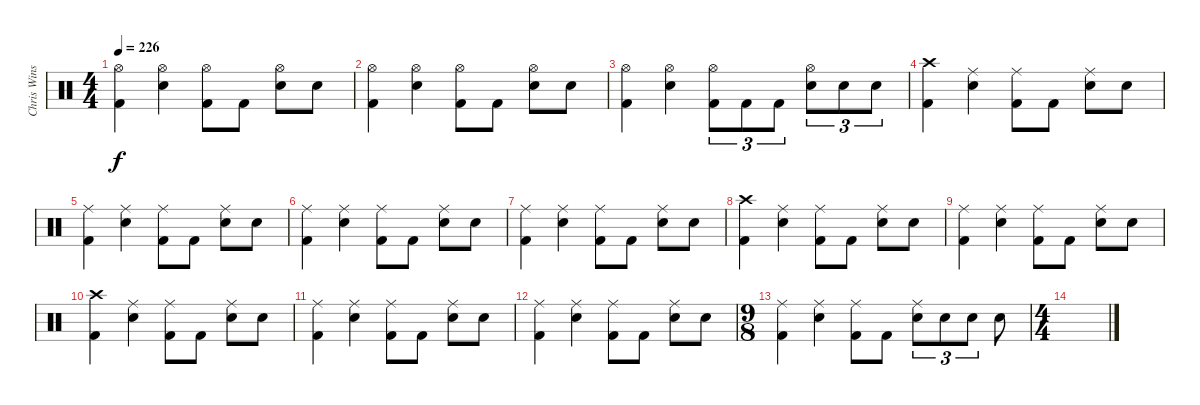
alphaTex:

\track ("Chris Winship (Drums)" "Chris Wins") {instrument percussion}
\staff {score}
\articulation defaults
\ts (4 4)
\tempo 226
\clef neutral
\ks c
("Hi-Hat (open)" "Kick (hit) 2").4{dy f} ("Hi-Hat (open)" "Electric Snare (hit)").4 ("Hi-Hat (open)" "Kick (hit) 2").8 "Kick (hit) 2".8 ("Hi-Hat (open)" "Electric Snare (hit)").8 "Electric Snare (hit)".8 |
("Hi-Hat (open)" "Kick (hit) 2").4 ("Hi-Hat (open)" "Electric Snare (hit)").4 ("Hi-Hat (open)" "Kick (hit) 2").8 "Kick (hit) 2".8 ("Hi-Hat (open)" "Electric Snare (hit)").8 "Electric Snare (hit)".8 |
("Hi-Hat (open)" "Kick (hit) 2").4 ("Hi-Hat (open)" "Electric Snare (hit)").4 ("Hi-Hat (open)" "Kick (hit) 2").8{tu (3 2)} "Kick (hit) 2".8{tu (3 2)} "Kick (hit) 2".8{tu (3 2)} ("Hi-Hat (open)" "Electric Snare (hit)").8{tu (3 2)} "Electric Snare (hit)".8{tu (3 2)} "Electric Snare (hit)".8{tu (3 2)} |
("Crash high (hit)" "Kick (hit) 2").4 ("Ride (middle)" "Electric Snare (hit)").4 ("Ride (middle)" "Kick (hit) 2").8 "Kick (hit) 2".8 ("Ride (middle)" "Electric Snare (hit)").8 "Electric Snare (hit)".8 |
("Ride (middle)" "Kick (hit) 2").4 ("Ride (middle)" "Electric Snare (hit)").4 ("Ride (middle)" "Kick (hit) 2").8 "Kick (hit) 2".8 ("Ride (middle)" "Electric Snare (hit)").8 "Electric Snare (hit)".8 |
("Ride (middle)" "Kick (hit) 2").4 ("Ride (middle)" "Electric Snare (hit)").4 ("Ride (middle)" "Kick (hit) 2").8 "Kick (hit) 2".8 ("Ride (middle)" "Electric Snare (hit)").8 "Electric Snare (hit)".8 |
("Ride (middle)" "Kick (hit) 2").4 ("Ride (middle)" "Electric Snare (hit)").4 ("Ride (middle)" "Kick (hit) 2").8 "Kick (hit) 2".8 ("Ride (middle)" "Electric Snare (hit)").8 "Electric Snare (hit)".8 |
("Crash high (hit)" "Kick (hit) 2").4 ("Ride (middle)" "Electric Snare (hit)").4 ("Ride (middle)" "Kick (hit) 2").8 "Kick (hit) 2".8 ("Ride (middle)" "Electric Snare (hit)").8 "Electric Snare (hit)".8 |
("Ride (middle)" "Kick (hit) 2").4 ("Ride (middle)" "Electric Snare (hit)").4 ("Ride (middle)" "Kick (hit) 2").8 "Kick (hit) 2".8 ("Ride (middle)" "Electric Snare (hit)").8 "Electric Snare (hit)".8 |
("Crash high (hit)" "Kick (hit) 2").4 ("Ride (middle)" "Electric Snare (hit)").4 ("Ride (middle)" "Kick (hit) 2").8 "Kick (hit) 2".8 ("Ride (middle)" "Electric Snare (hit)").8 "Electric Snare (hit)".8 |
("Ride (middle)" "Kick (hit) 2").4 ("Ride (middle)" "Electric Snare (hit)").4 ("Ride (middle)" "Kick (hit) 2").8 "Kick (hit) 2".8 ("Ride (middle)" "Electric Snare (hit)").8 "Electric Snare (hit)".8 |
("Ride (middle)" "Kick (hit) 2").4 ("Ride (middle)" "Electric Snare (hit)").4 ("Ride (middle)" "Kick (hit) 2").8 "Kick (hit) 2".8 ("Ride (middle)" "Electric Snare (hit)").8 "Electric Snare (hit)".8 |
\ts (9 8)
("Ride (middle)" "Kick (hit) 2").4 ("Ride (middle)" "Electric Snare (hit)").4 ("Ride (middle)" "Kick (hit) 2").8 "Kick (hit) 2".8 ("Ride (middle)" "Electric Snare (hit)").8{tu (3 2)} "Electric Snare (hit)".8{tu (3 2)} "Electric Snare (hit)".8{tu (3 2)} "Electric Snare (hit)".8 |
\ts (4 4)
